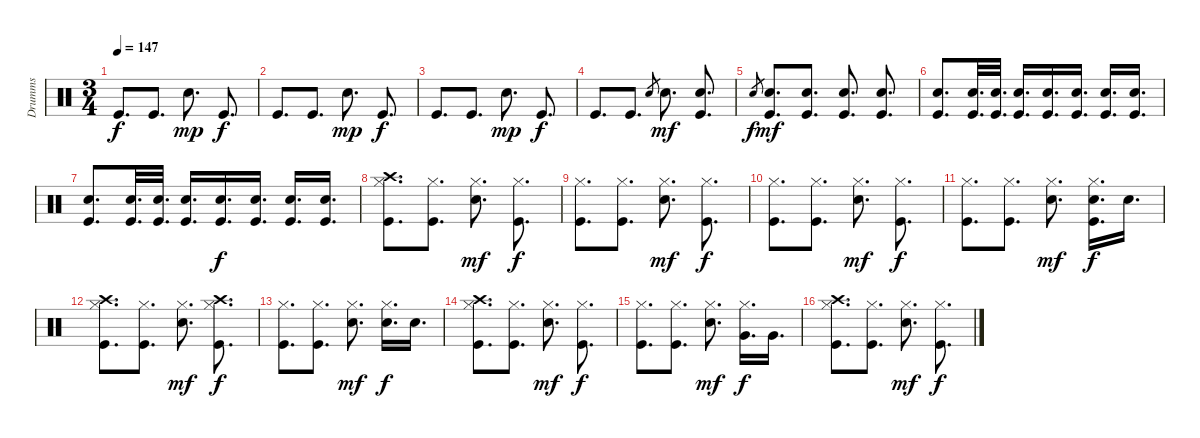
\track ("Drumms" "Drumms") {instrument percussion}
\staff {score}
\articulation defaults
\ts (3 4)
\tempo 147
\clef neutral
\ks c "Kick (hit)".8{d dy f} "Kick (hit)".8{d} "Electric Snare (hit)".8{d dy mp} "Kick (hit)".8{d dy f}
|
"Kick (hit)".8{d} "Kick (hit)".8{d} "Electric Snare (hit)".8{d dy mp} "Kick (hit)".8{d dy f} |
"Kick (hit)".8{d} "Kick (hit)".8{d} "Electric Snare (hit)".8{d dy mp} "Kick (hit)".8{d dy f} |
"Kick (hit)".8{d} "Kick (hit)".8{d} "Electric Snare (hit)".8{gr} "Electric Snare (hit)".8{d dy mf} ("Electric Snare (hit)" "Kick (hit)").8{d} |
"Electric Snare (hit)".8{gr dy f} ("Electric Snare (hit)" "Kick (hit)").8{d dy mf} ("Electric Snare (hit)" "Kick (hit)").8{d} ("Electric Snare (hit)" "Kick (hit)").8{d} ("Electric Snare (hit)" "Kick (hit)").8{d} |
("Electric Snare (hit)" "Kick (hit)").8{d} ("Electric Snare (hit)" "Kick (hit)").32{d} ("Electric Snare (hit)" "Kick (hit)").32{d} ("Electric Snare (hit)" "Kick (hit)").16{d} ("Electric Snare (hit)" "Kick (hit)").16{d} ("Electric Snare (hit)" "Kick (hit)").16{d} ("Electric Snare (hit)" "Kick (hit)").16{d} ("Electric Snare (hit)" "Kick (hit)").16{d} |
("Electric Snare (hit)" "Kick (hit)").8{d} ("Electric Snare (hit)" "Kick (hit)").32{d} ("Electric Snare (hit)" "Kick (hit)").32{d} ("Electric Snare (hit)" "Kick (hit)").16{d} ("Electric Snare (hit)" "Kick (hit)").16{d dy f} ("Electric Snare (hit)" "Kick (hit)").16{d} ("Electric Snare (hit)" "Kick (hit)").16{d} ("Electric Snare (hit)" "Kick (hit)").16{d} |
("Crash high (hit)" "Kick (hit)" "Hi-Hat (closed)").8{d} ("Kick (hit)" "Hi-Hat (closed)").8{d} ("Electric Snare (hit)" "Hi-Hat (closed)").8{d dy mf} ("Kick (hit)" "Hi-Hat (closed)").8{d dy f} |
("Kick (hit)" "Hi-Hat (closed)").8{d} ("Kick (hit)" "Hi-Hat (closed)").8{d} ("Electric Snare (hit)" "Hi-Hat (closed)").8{d dy mf} ("Kick (hit)" "Hi-Hat (closed)").8{d dy f} |
("Kick (hit)" "Hi-Hat (closed)").8{d} ("Kick (hit)" "Hi-Hat (closed)").8{d} ("Electric Snare (hit)" "Hi-Hat (closed)").8{d dy mf} ("Kick (hit)" "Hi-Hat (closed)").8{d dy f} |
("Kick (hit)" "Hi-Hat (closed)").8{d} ("Kick (hit)" "Hi-Hat (closed)").8{d} ("Electric Snare (hit)" "Hi-Hat (closed)").8{d dy mf} ("Electric Snare (hit)" "Kick (hit)" "Hi-Hat (closed)").16{d dy f} "Electric Snare (hit)".16{d} |
("Crash high (hit)" "Kick (hit)" "Hi-Hat (closed)").8{d} ("Kick (hit)" "Hi-Hat (closed)").8{d} ("Electric Snare (hit)" "Hi-Hat (closed)").8{d dy mf} ("Crash high (hit)" "Kick (hit)" "Hi-Hat (closed)").8{d dy f} |
("Kick (hit)" "Hi-Hat (closed)").8{d} ("Kick (hit)" "Hi-Hat (closed)").8{d} ("Electric Snare (hit)" "Hi-Hat (closed)").8{d dy mf} ("Electric Snare (hit)" "Hi-Hat (closed)").16{d dy f} "Electric Snare (hit)".16{d} |
("Crash high (hit)" "Kick (hit)" "Hi-Hat (closed)").8{d} ("Kick (hit)" "Hi-Hat (closed)").8{d} ("Electric Snare (hit)" "Hi-Hat (closed)").8{d dy mf} ("Kick (hit)" "Hi-Hat (closed)").8{d dy f} |
("Kick (hit)" "Hi-Hat (closed)").8{d} ("Kick (hit)" "Hi-Hat (closed)").8{d} ("Electric Snare (hit)" "Hi-Hat (closed)").8{d dy mf} ("Very Low Tom (hit)" "Hi-Hat (closed)").16{d dy f} "Very Low Tom (hit)".16{d} |
("Crash high (hit)" "Kick (hit)" "Hi-Hat (closed)").8{d} ("Kick (hit)" "Hi-Hat (closed)").8{d} ("Electric Snare (hit)" "Hi-Hat (closed)").8{d dy mf} ("Kick (hit)" "Hi-Hat (closed)").8{d dy f}
